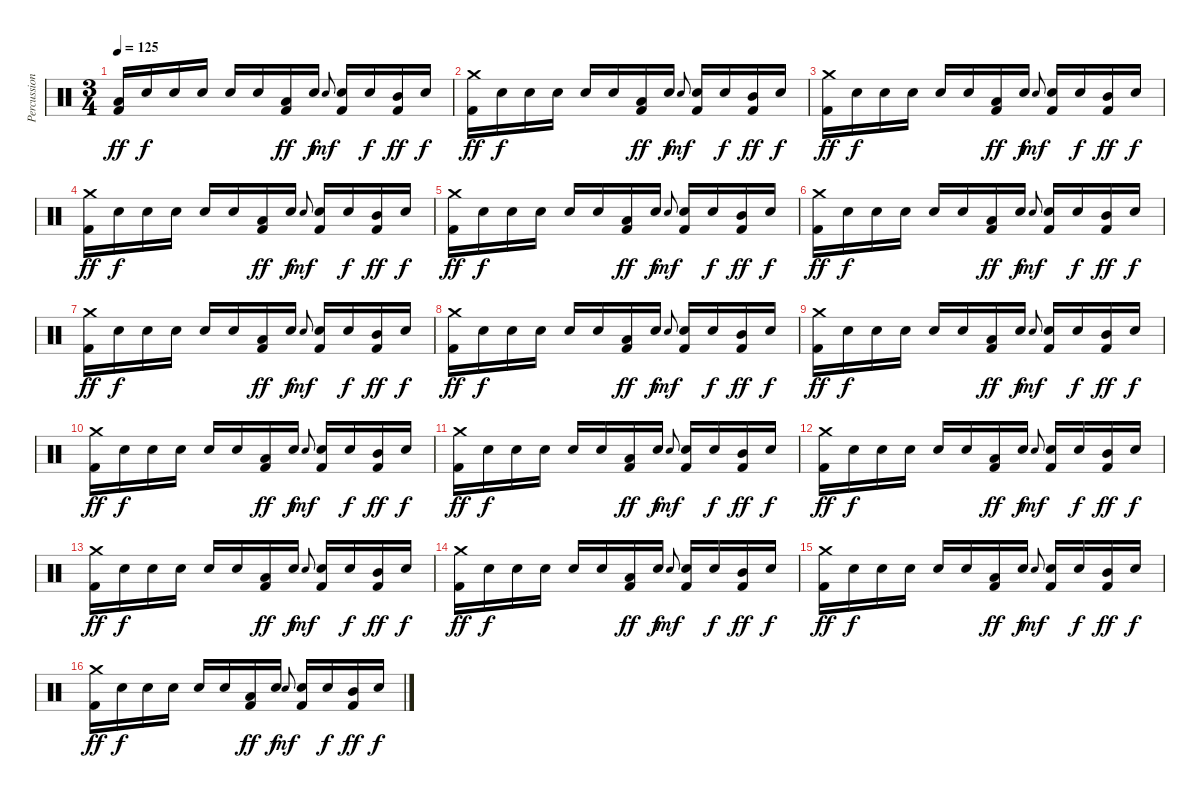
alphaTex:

\track ("Percussion" "Percussion") {instrument percussion}
\staff {score}
\articulation defaults
\ts (3 4)
\tempo 125
\clef neutral
\ks c
("Low Tom (hit)" "Kick (hit) 2").16{dy ff} "Snare (hit) 2".16{dy f} "Snare (hit) 2".16 "Snare (hit) 2".16 "Snare (hit) 2".16 "Snare (hit) 2".16 ("Low Tom (hit)" "Kick (hit) 2").16{dy ff} "Snare (hit) 2".16{dy f} "Snare (hit) 2".8{gr onbeat dy mf} ("Snare (hit) 2" "Kick (hit) 2").16 "Snare (hit) 2".16{dy f} ("Mid Tom (hit)" "Kick (hit) 2").16{dy ff} "Snare (hit) 2".16{dy f} |
("Crash medium (hit)" "Kick (hit) 2").16{dy ff} "Snare (hit) 2".16{dy f} "Snare (hit) 2".16 "Snare (hit) 2".16 "Snare (hit) 2".16 "Snare (hit) 2".16 ("Low Tom (hit)" "Kick (hit) 2").16{dy ff} "Snare (hit) 2".16{dy f} "Snare (hit) 2".8{gr onbeat dy mf} ("Snare (hit) 2" "Kick (hit) 2").16 "Snare (hit) 2".16{dy f} ("Mid Tom (hit)" "Kick (hit) 2").16{dy ff} "Snare (hit) 2".16{dy f} |
("Crash medium (hit)" "Kick (hit) 2").16{dy ff} "Snare (hit) 2".16{dy f} "Snare (hit) 2".16 "Snare (hit) 2".16 "Snare (hit) 2".16 "Snare (hit) 2".16 ("Low Tom (hit)" "Kick (hit) 2").16{dy ff} "Snare (hit) 2".16{dy f} "Snare (hit) 2".8{gr onbeat dy mf} ("Snare (hit) 2" "Kick (hit) 2").16 "Snare (hit) 2".16{dy f} ("Mid Tom (hit)" "Kick (hit) 2").16{dy ff} "Snare (hit) 2".16{dy f} |
("Crash medium (hit)" "Kick (hit) 2").16{dy ff} "Snare (hit) 2".16{dy f} "Snare (hit) 2".16 "Snare (hit) 2".16 "Snare (hit) 2".16 "Snare (hit) 2".16 ("Low Tom (hit)" "Kick (hit) 2").16{dy ff} "Snare (hit) 2".16{dy f} "Snare (hit) 2".8{gr onbeat dy mf} ("Snare (hit) 2" "Kick (hit) 2").16 "Snare (hit) 2".16{dy f} ("Mid Tom (hit)" "Kick (hit) 2").16{dy ff} "Snare (hit) 2".16{dy f} |
("Crash medium (hit)" "Kick (hit) 2").16{dy ff} "Snare (hit) 2".16{dy f} "Snare (hit) 2".16 "Snare (hit) 2".16 "Snare (hit) 2".16 "Snare (hit) 2".16 ("Low Tom (hit)" "Kick (hit) 2").16{dy ff} "Snare (hit) 2".16{dy f} "Snare (hit) 2".8{gr onbeat dy mf} ("Snare (hit) 2" "Kick (hit) 2").16 "Snare (hit) 2".16{dy f} ("Mid Tom (hit)" "Kick (hit) 2").16{dy ff} "Snare (hit) 2".16{dy f} |
("Crash medium (hit)" "Kick (hit) 2").16{dy ff} "Snare (hit) 2".16{dy f} "Snare (hit) 2".16 "Snare (hit) 2".16 "Snare (hit) 2".16 "Snare (hit) 2".16 ("Low Tom (hit)" "Kick (hit) 2").16{dy ff} "Snare (hit) 2".16{dy f} "Snare (hit) 2".8{gr onbeat dy mf} ("Snare (hit) 2" "Kick (hit) 2").16 "Snare (hit) 2".16{dy f} ("Mid Tom (hit)" "Kick (hit) 2").16{dy ff} "Snare (hit) 2".16{dy f} |
("Crash medium (hit)" "Kick (hit) 2").16{dy ff} "Snare (hit) 2".16{dy f} "Snare (hit) 2".16 "Snare (hit) 2".16 "Snare (hit) 2".16 "Snare (hit) 2".16 ("Low Tom (hit)" "Kick (hit) 2").16{dy ff} "Snare (hit) 2".16{dy f} "Snare (hit) 2".8{gr onbeat dy mf} ("Snare (hit) 2" "Kick (hit) 2").16 "Snare (hit) 2".16{dy f} ("Mid Tom (hit)" "Kick (hit) 2").16{dy ff} "Snare (hit) 2".16{dy f} |
("Crash medium (hit)" "Kick (hit) 2").16{dy ff} "Snare (hit) 2".16{dy f} "Snare (hit) 2".16 "Snare (hit) 2".16 "Snare (hit) 2".16 "Snare (hit) 2".16 ("Low Tom (hit)" "Kick (hit) 2").16{dy ff} "Snare (hit) 2".16{dy f} "Snare (hit) 2".8{gr onbeat dy mf} ("Snare (hit) 2" "Kick (hit) 2").16 "Snare (hit) 2".16{dy f} ("Mid Tom (hit)" "Kick (hit) 2").16{dy ff} "Snare (hit) 2".16{dy f} |
("Crash medium (hit)" "Kick (hit) 2").16{dy ff} "Snare (hit) 2".16{dy f} "Snare (hit) 2".16 "Snare (hit) 2".16 "Snare (hit) 2".16 "Snare (hit) 2".16 ("Low Tom (hit)" "Kick (hit) 2").16{dy ff} "Snare (hit) 2".16{dy f} "Snare (hit) 2".8{gr onbeat dy mf} ("Snare (hit) 2" "Kick (hit) 2").16 "Snare (hit) 2".16{dy f} ("Mid Tom (hit)" "Kick (hit) 2").16{dy ff} "Snare (hit) 2".16{dy f} |
("Crash medium (hit)" "Kick (hit) 2").16{dy ff} "Snare (hit) 2".16{dy f} "Snare (hit) 2".16 "Snare (hit) 2".16 "Snare (hit) 2".16 "Snare (hit) 2".16 ("Low Tom (hit)" "Kick (hit) 2").16{dy ff} "Snare (hit) 2".16{dy f} "Snare (hit) 2".8{gr onbeat dy mf} ("Snare (hit) 2" "Kick (hit) 2").16 "Snare (hit) 2".16{dy f} ("Mid Tom (hit)" "Kick (hit) 2").16{dy ff} "Snare (hit) 2".16{dy f} |
("Crash medium (hit)" "Kick (hit) 2").16{dy ff} "Snare (hit) 2".16{dy f} "Snare (hit) 2".16 "Snare (hit) 2".16 "Snare (hit) 2".16 "Snare (hit) 2".16 ("Low Tom (hit)" "Kick (hit) 2").16{dy ff} "Snare (hit) 2".16{dy f} "Snare (hit) 2".8{gr onbeat dy mf} ("Snare (hit) 2" "Kick (hit) 2").16 "Snare (hit) 2".16{dy f} ("Mid Tom (hit)" "Kick (hit) 2").16{dy ff} "Snare (hit) 2".16{dy f} |
("Crash medium (hit)" "Kick (hit) 2").16{dy ff} "Snare (hit) 2".16{dy f} "Snare (hit) 2".16 "Snare (hit) 2".16 "Snare (hit) 2".16 "Snare (hit) 2".16 ("Low Tom (hit)" "Kick (hit) 2").16{dy ff volume 13} "Snare (hit) 2".16{dy f} "Snare (hit) 2".8{gr onbeat dy mf} ("Snare (hit) 2" "Kick (hit) 2").16 "Snare (hit) 2".16{dy f} ("Mid Tom (hit)" "Kick (hit) 2").16{dy ff} "Snare (hit) 2".16{dy f} |
("Crash medium (hit)" "Kick (hit) 2").16{dy ff} "Snare (hit) 2".16{dy f} "Snare (hit) 2".16 "Snare (hit) 2".16 "Snare (hit) 2".16 "Snare (hit) 2".16 ("Low Tom (hit)" "Kick (hit) 2").16{dy ff} "Snare (hit) 2".16{dy f} "Snare (hit) 2".8{gr onbeat dy mf} ("Snare (hit) 2" "Kick (hit) 2").16 "Snare (hit) 2".16{dy f} ("Mid Tom (hit)" "Kick (hit) 2").16{dy ff} "Snare (hit) 2".16{dy f} |
("Crash medium (hit)" "Kick (hit) 2").16{dy ff} "Snare (hit) 2".16{dy f} "Snare (hit) 2".16 "Snare (hit) 2".16 "Snare (hit) 2".16 "Snare (hit) 2".16 ("Low Tom (hit)" "Kick (hit) 2").16{dy ff} "Snare (hit) 2".16{dy f} "Snare (hit) 2".8{gr onbeat dy mf} ("Snare (hit) 2" "Kick (hit) 2").16 "Snare (hit) 2".16{dy f} ("Mid Tom (hit)" "Kick (hit) 2").16{dy ff} "Snare (hit) 2".16{dy f} |
("Crash medium (hit)" "Kick (hit) 2").16{dy ff} "Snare (hit) 2".16{dy f} "Snare (hit) 2".16 "Snare (hit) 2".16 "Snare (hit) 2".16 "Snare (hit) 2".16 ("Low Tom (hit)" "Kick (hit) 2").16{dy ff} "Snare (hit) 2".16{dy f} "Snare (hit) 2".8{gr onbeat dy mf} ("Snare (hit) 2" "Kick (hit) 2").16 "Snare (hit) 2".16{dy f} ("Mid Tom (hit)" "Kick (hit) 2").16{dy ff} "Snare (hit) 2".16{dy f} |
("Crash medium (hit)" "Kick (hit) 2").16{dy ff} "Snare (hit) 2".16{dy f} "Snare (hit) 2".16 "Snare (hit) 2".16 "Snare (hit) 2".16 "Snare (hit) 2".16 ("Low Tom (hit)" "Kick (hit) 2").16{dy ff} "Snare (hit) 2".16{dy f} "Snare (hit) 2".8{gr onbeat dy mf} ("Snare (hit) 2" "Kick (hit) 2").16 "Snare (hit) 2".16{dy f} ("Mid Tom (hit)" "Kick (hit) 2").16{dy ff} "Snare (hit) 2".16{dy f}
